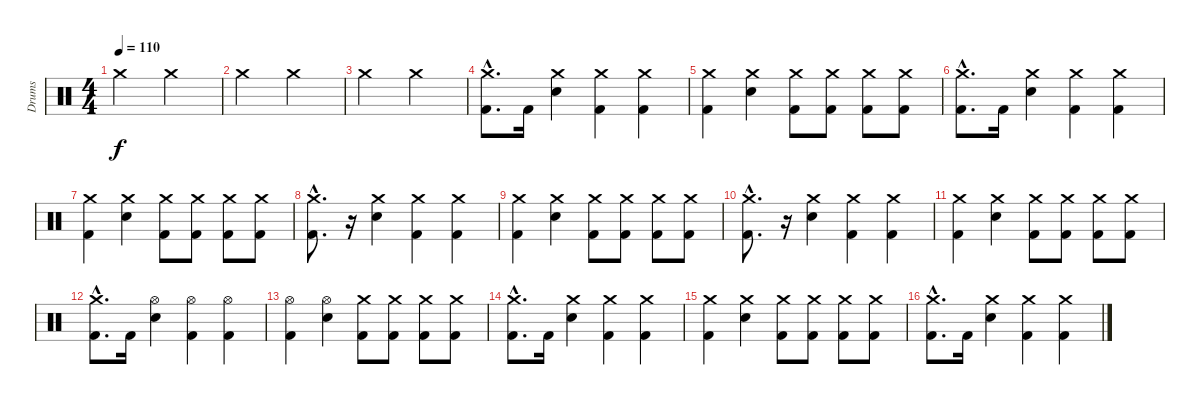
\track ("Drums" "Drums") {instrument percussion}
\staff {score}
\articulation defaults
\ts (4 4)
\tempo 110
\clef neutral
\ks c "Crash medium (hit)".2{dy f} "Crash medium (hit)".2
|
"Crash medium (hit)".2 "Crash medium (hit)".2 |
"Crash medium (hit)".2 "Crash medium (hit)".2 |
("Kick (hit) 2"{hac} "Crash medium (hit)"{hac}).8{d} "Kick (hit) 2".16 ("Electric Snare (hit)" "Crash medium (hit)").4 ("Kick (hit) 2" "Crash medium (hit)").4 ("Kick (hit) 2" "Crash medium (hit)").4 |
("Kick (hit) 2" "Crash medium (hit)").4 ("Electric Snare (hit)" "Crash medium (hit)").4 ("Kick (hit) 2" "Crash medium (hit)").8 ("Kick (hit) 2" "Crash medium (hit)").8 ("Kick (hit) 2" "Crash medium (hit)").8 ("Kick (hit) 2" "Crash medium (hit)").8 |
("Kick (hit) 2"{hac} "Crash medium (hit)"{hac}).8{d} "Kick (hit) 2".16 ("Electric Snare (hit)" "Crash medium (hit)").4 ("Kick (hit) 2" "Crash medium (hit)").4 ("Kick (hit) 2" "Crash medium (hit)").4 |
("Kick (hit) 2" "Crash medium (hit)").4 ("Electric Snare (hit)" "Crash medium (hit)").4 ("Kick (hit) 2" "Crash medium (hit)").8 ("Kick (hit) 2" "Crash medium (hit)").8 ("Kick (hit) 2" "Crash medium (hit)").8 ("Kick (hit) 2" "Crash medium (hit)").8 |
("Kick (hit) 2"{hac} "Crash medium (hit)"{hac}).8{d} r.16 ("Electric Snare (hit)" "Crash medium (hit)").4 ("Kick (hit) 2" "Crash medium (hit)").4 ("Kick (hit) 2" "Crash medium (hit)").4 |
("Kick (hit) 2" "Crash medium (hit)").4 ("Electric Snare (hit)" "Crash medium (hit)").4 ("Kick (hit) 2" "Crash medium (hit)").8 ("Kick (hit) 2" "Crash medium (hit)").8 ("Kick (hit) 2" "Crash medium (hit)").8 ("Kick (hit) 2" "Crash medium (hit)").8 |
("Kick (hit) 2"{hac} "Crash medium (hit)"{hac}).8{d} r.16 ("Electric Snare (hit)" "Crash medium (hit)").4 ("Kick (hit) 2" "Crash medium (hit)").4 ("Kick (hit) 2" "Crash medium (hit)").4 |
("Kick (hit) 2" "Crash medium (hit)").4 ("Electric Snare (hit)" "Crash medium (hit)").4 ("Kick (hit) 2" "Crash medium (hit)").8 ("Kick (hit) 2" "Crash medium (hit)").8 ("Kick (hit) 2" "Crash medium (hit)").8 ("Kick (hit) 2" "Crash medium (hit)").8 |
("Kick (hit) 2"{hac} "Crash medium (hit)"{hac}).8{d} "Kick (hit) 2".16 ("Electric Snare (hit)" "Hi-Hat (open)").4 ("Kick (hit) 2" "Hi-Hat (open)").4 ("Kick (hit) 2" "Hi-Hat (open)").4 |
("Kick (hit) 2" "Hi-Hat (open)").4 ("Electric Snare (hit)" "Hi-Hat (open)").4 ("Kick (hit) 2" "Crash medium (hit)").8 ("Kick (hit) 2" "Crash medium (hit)").8 ("Kick (hit) 2" "Crash medium (hit)").8 ("Kick (hit) 2" "Crash medium (hit)").8 |
("Kick (hit) 2"{hac} "Crash medium (hit)"{hac}).8{d} "Kick (hit) 2".16 ("Electric Snare (hit)" "Crash medium (hit)").4 ("Kick (hit) 2" "Crash medium (hit)").4 ("Kick (hit) 2" "Crash medium (hit)").4 |
("Kick (hit) 2" "Crash medium (hit)").4 ("Electric Snare (hit)" "Crash medium (hit)").4 ("Kick (hit) 2" "Crash medium (hit)").8 ("Kick (hit) 2" "Crash medium (hit)").8 ("Kick (hit) 2" "Crash medium (hit)").8 ("Kick (hit) 2" "Crash medium (hit)").8 |
("Kick (hit) 2"{hac} "Crash medium (hit)"{hac}).8{d} "Kick (hit) 2".16 ("Electric Snare (hit)" "Crash medium (hit)").4 ("Kick (hit) 2" "Crash medium (hit)").4 ("Kick (hit) 2" "Crash medium (hit)").4
